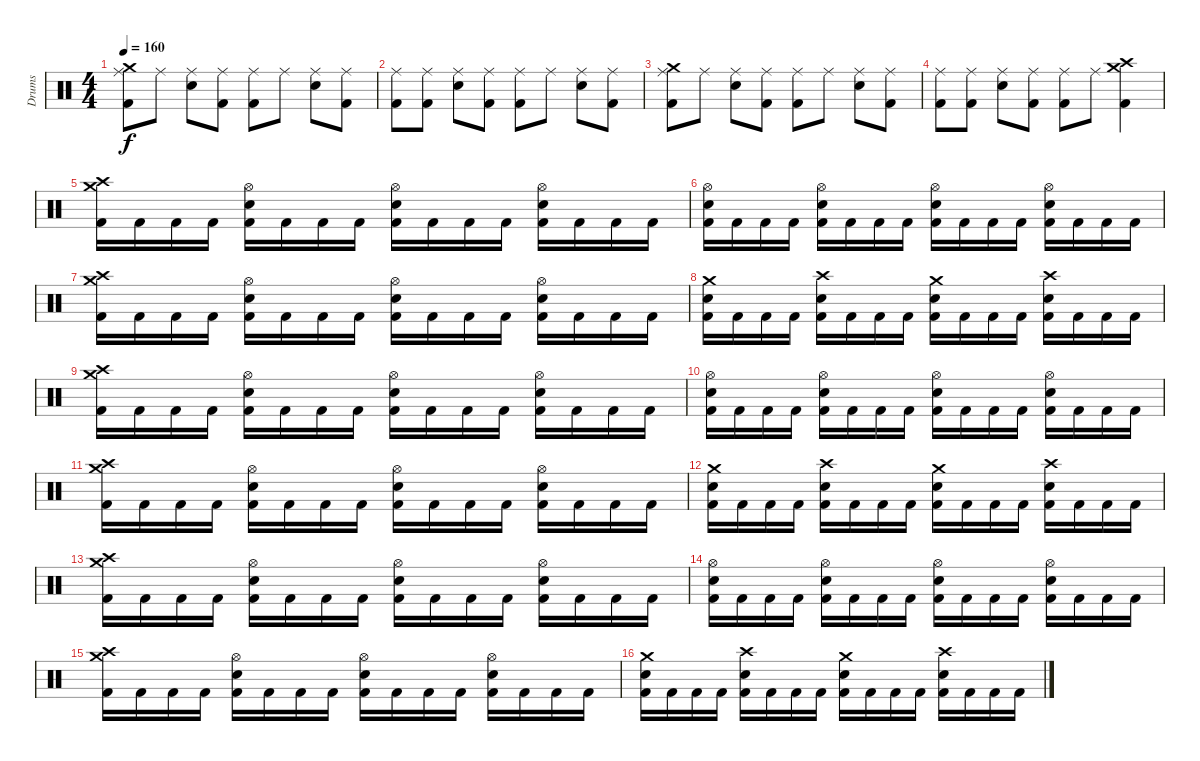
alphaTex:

\track ("Drums" "Drums") {instrument percussion}
\staff {score}
\articulation defaults
\ts (4 4)
\tempo 160
\clef neutral
\ks c
("Ride (middle)" "Crash medium (hit)" "Kick (hit) 2").8{dy f} "Ride (middle)".8 ("Ride (middle)" "Snare (hit) 2").8 ("Ride (middle)" "Kick (hit) 2").8 ("Ride (middle)" "Kick (hit) 2").8 "Ride (middle)".8 ("Ride (middle)" "Snare (hit) 2").8 ("Ride (middle)" "Kick (hit) 2").8 |
("Ride (middle)" "Kick (hit) 2").8 ("Ride (middle)" "Kick (hit) 2").8 ("Ride (middle)" "Snare (hit) 2").8 ("Ride (middle)" "Kick (hit) 2").8 ("Ride (middle)" "Kick (hit) 2").8 "Ride (middle)".8 ("Ride (middle)" "Snare (hit) 2").8 ("Ride (middle)" "Kick (hit) 2").8 |
("Ride (middle)" "Crash medium (hit)" "Kick (hit) 2").8 "Ride (middle)".8 ("Ride (middle)" "Snare (hit) 2").8 ("Ride (middle)" "Kick (hit) 2").8 ("Ride (middle)" "Kick (hit) 2").8 "Ride (middle)".8 ("Ride (middle)" "Snare (hit) 2").8 ("Ride (middle)" "Kick (hit) 2").8 |
("Ride (middle)" "Kick (hit) 2").8 ("Ride (middle)" "Kick (hit) 2").8 ("Ride (middle)" "Snare (hit) 2").8 ("Ride (middle)" "Kick (hit) 2").8 ("Ride (middle)" "Kick (hit) 2").8 "Ride (middle)".8 ("Crash medium (hit)" "Crash high (hit)" "Kick (hit) 2").4 |
("Crash high (hit)" "Crash medium (hit)" "Kick (hit) 2").16 "Kick (hit) 2".16 "Kick (hit) 2".16 "Kick (hit) 2".16 ("Hi-Hat (open)" "Snare (hit) 2" "Kick (hit) 2").16 "Kick (hit) 2".16 "Kick (hit) 2".16 "Kick (hit) 2".16 ("Hi-Hat (open)" "Snare (hit) 2" "Kick (hit) 2").16 "Kick (hit) 2".16 "Kick (hit) 2".16 "Kick (hit) 2".16 ("Hi-Hat (open)" "Snare (hit) 2" "Kick (hit) 2").16 "Kick (hit) 2".16 "Kick (hit) 2".16 "Kick (hit) 2".16 |
("Hi-Hat (open)" "Snare (hit) 2" "Kick (hit) 2").16 "Kick (hit) 2".16 "Kick (hit) 2".16 "Kick (hit) 2".16 ("Hi-Hat (open)" "Snare (hit) 2" "Kick (hit) 2").16 "Kick (hit) 2".16 "Kick (hit) 2".16 "Kick (hit) 2".16 ("Hi-Hat (open)" "Snare (hit) 2" "Kick (hit) 2").16 "Kick (hit) 2".16 "Kick (hit) 2".16 "Kick (hit) 2".16 ("Hi-Hat (open)" "Snare (hit) 2" "Kick (hit) 2").16 "Kick (hit) 2".16 "Kick (hit) 2".16 "Kick (hit) 2".16 |
("Crash high (hit)" "Crash medium (hit)" "Kick (hit) 2").16 "Kick (hit) 2".16 "Kick (hit) 2".16 "Kick (hit) 2".16 ("Hi-Hat (open)" "Snare (hit) 2" "Kick (hit) 2").16 "Kick (hit) 2".16 "Kick (hit) 2".16 "Kick (hit) 2".16 ("Hi-Hat (open)" "Snare (hit) 2" "Kick (hit) 2").16 "Kick (hit) 2".16 "Kick (hit) 2".16 "Kick (hit) 2".16 ("Hi-Hat (open)" "Snare (hit) 2" "Kick (hit) 2").16 "Kick (hit) 2".16 "Kick (hit) 2".16 "Kick (hit) 2".16 |
("Crash medium (hit)" "Snare (hit) 2" "Kick (hit) 2").16 "Kick (hit) 2".16 "Kick (hit) 2".16 "Kick (hit) 2".16 ("Crash high (hit)" "Snare (hit) 2" "Kick (hit) 2").16 "Kick (hit) 2".16 "Kick (hit) 2".16 "Kick (hit) 2".16 ("Crash medium (hit)" "Snare (hit) 2" "Kick (hit) 2").16 "Kick (hit) 2".16 "Kick (hit) 2".16 "Kick (hit) 2".16 ("Crash high (hit)" "Snare (hit) 2" "Kick (hit) 2").16 "Kick (hit) 2".16 "Kick (hit) 2".16 "Kick (hit) 2".16 |
("Crash high (hit)" "Crash medium (hit)" "Kick (hit) 2").16 "Kick (hit) 2".16 "Kick (hit) 2".16 "Kick (hit) 2".16 ("Hi-Hat (open)" "Snare (hit) 2" "Kick (hit) 2").16 "Kick (hit) 2".16 "Kick (hit) 2".16 "Kick (hit) 2".16 ("Hi-Hat (open)" "Snare (hit) 2" "Kick (hit) 2").16 "Kick (hit) 2".16 "Kick (hit) 2".16 "Kick (hit) 2".16 ("Hi-Hat (open)" "Snare (hit) 2" "Kick (hit) 2").16 "Kick (hit) 2".16 "Kick (hit) 2".16 "Kick (hit) 2".16 |
("Hi-Hat (open)" "Snare (hit) 2" "Kick (hit) 2").16 "Kick (hit) 2".16 "Kick (hit) 2".16 "Kick (hit) 2".16 ("Hi-Hat (open)" "Snare (hit) 2" "Kick (hit) 2").16 "Kick (hit) 2".16 "Kick (hit) 2".16 "Kick (hit) 2".16 ("Hi-Hat (open)" "Snare (hit) 2" "Kick (hit) 2").16 "Kick (hit) 2".16 "Kick (hit) 2".16 "Kick (hit) 2".16 ("Hi-Hat (open)" "Snare (hit) 2" "Kick (hit) 2").16 "Kick (hit) 2".16 "Kick (hit) 2".16 "Kick (hit) 2".16 |
("Crash high (hit)" "Crash medium (hit)" "Kick (hit) 2").16 "Kick (hit) 2".16 "Kick (hit) 2".16 "Kick (hit) 2".16 ("Hi-Hat (open)" "Snare (hit) 2" "Kick (hit) 2").16 "Kick (hit) 2".16 "Kick (hit) 2".16 "Kick (hit) 2".16 ("Hi-Hat (open)" "Snare (hit) 2" "Kick (hit) 2").16 "Kick (hit) 2".16 "Kick (hit) 2".16 "Kick (hit) 2".16 ("Hi-Hat (open)" "Snare (hit) 2" "Kick (hit) 2").16 "Kick (hit) 2".16 "Kick (hit) 2".16 "Kick (hit) 2".16 |
("Crash medium (hit)" "Snare (hit) 2" "Kick (hit) 2").16 "Kick (hit) 2".16 "Kick (hit) 2".16 "Kick (hit) 2".16 ("Crash high (hit)" "Snare (hit) 2" "Kick (hit) 2").16 "Kick (hit) 2".16 "Kick (hit) 2".16 "Kick (hit) 2".16 ("Crash medium (hit)" "Snare (hit) 2" "Kick (hit) 2").16 "Kick (hit) 2".16 "Kick (hit) 2".16 "Kick (hit) 2".16 ("Crash high (hit)" "Snare (hit) 2" "Kick (hit) 2").16 "Kick (hit) 2".16 "Kick (hit) 2".16 "Kick (hit) 2".16 |
("Crash high (hit)" "Crash medium (hit)" "Kick (hit) 2").16 "Kick (hit) 2".16 "Kick (hit) 2".16 "Kick (hit) 2".16 ("Hi-Hat (open)" "Snare (hit) 2" "Kick (hit) 2").16 "Kick (hit) 2".16 "Kick (hit) 2".16 "Kick (hit) 2".16 ("Hi-Hat (open)" "Snare (hit) 2" "Kick (hit) 2").16 "Kick (hit) 2".16 "Kick (hit) 2".16 "Kick (hit) 2".16 ("Hi-Hat (open)" "Snare (hit) 2" "Kick (hit) 2").16 "Kick (hit) 2".16 "Kick (hit) 2".16 "Kick (hit) 2".16 |
("Hi-Hat (open)" "Snare (hit) 2" "Kick (hit) 2").16 "Kick (hit) 2".16 "Kick (hit) 2".16 "Kick (hit) 2".16 ("Hi-Hat (open)" "Snare (hit) 2" "Kick (hit) 2").16 "Kick (hit) 2".16 "Kick (hit) 2".16 "Kick (hit) 2".16 ("Hi-Hat (open)" "Snare (hit) 2" "Kick (hit) 2").16 "Kick (hit) 2".16 "Kick (hit) 2".16 "Kick (hit) 2".16 ("Hi-Hat (open)" "Snare (hit) 2" "Kick (hit) 2").16 "Kick (hit) 2".16 "Kick (hit) 2".16 "Kick (hit) 2".16 |
("Crash high (hit)" "Crash medium (hit)" "Kick (hit) 2").16 "Kick (hit) 2".16 "Kick (hit) 2".16 "Kick (hit) 2".16 ("Hi-Hat (open)" "Snare (hit) 2" "Kick (hit) 2").16 "Kick (hit) 2".16 "Kick (hit) 2".16 "Kick (hit) 2".16 ("Hi-Hat (open)" "Snare (hit) 2" "Kick (hit) 2").16 "Kick (hit) 2".16 "Kick (hit) 2".16 "Kick (hit) 2".16 ("Hi-Hat (open)" "Snare (hit) 2" "Kick (hit) 2").16 "Kick (hit) 2".16 "Kick (hit) 2".16 "Kick (hit) 2".16 |
("Crash medium (hit)" "Snare (hit) 2" "Kick (hit) 2").16 "Kick (hit) 2".16 "Kick (hit) 2".16 "Kick (hit) 2".16 ("Crash high (hit)" "Snare (hit) 2" "Kick (hit) 2").16 "Kick (hit) 2".16 "Kick (hit) 2".16 "Kick (hit) 2".16 ("Crash medium (hit)" "Snare (hit) 2" "Kick (hit) 2").16 "Kick (hit) 2".16 "Kick (hit) 2".16 "Kick (hit) 2".16 ("Crash high (hit)" "Snare (hit) 2" "Kick (hit) 2").16 "Kick (hit) 2".16 "Kick (hit) 2".16 "Kick (hit) 2".16
